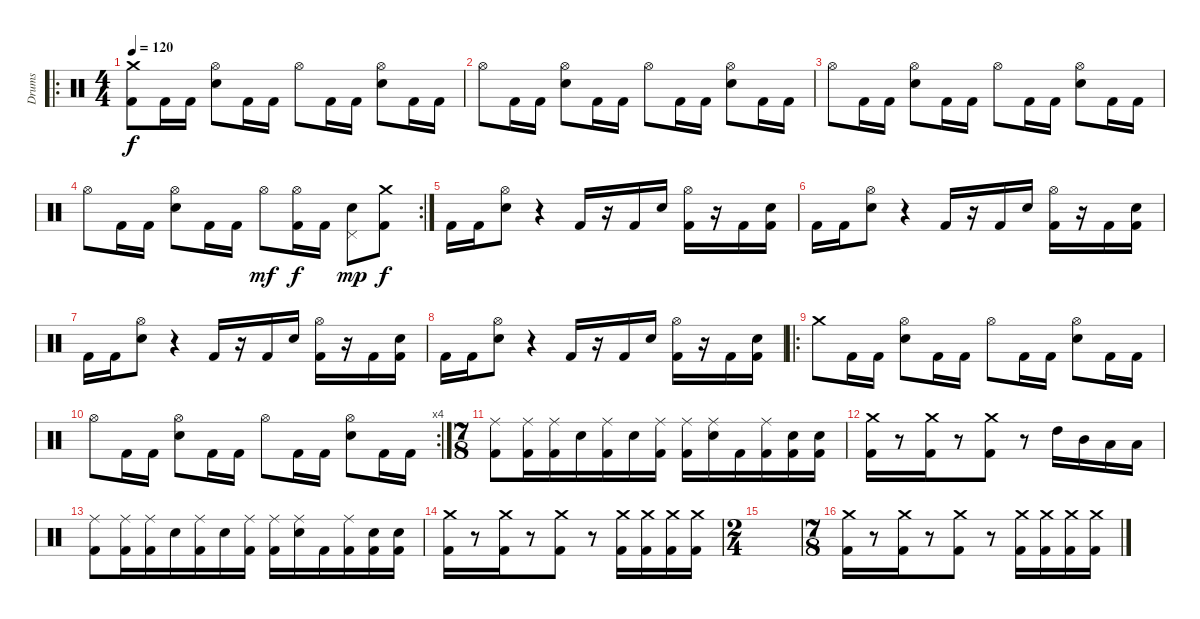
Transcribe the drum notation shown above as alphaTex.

\track ("Drums" "Drums") {instrument percussion}
\staff {score}
\articulation defaults
\ro
\ts (4 4)
\tempo 120
\clef neutral
\ks c
("Crash medium (hit)" "Kick (hit) 2").8{dy f} "Kick (hit) 2".16 "Kick (hit) 2".16 ("Hi-Hat (open)" "Snare (hit) 2").8 "Kick (hit) 2".16 "Kick (hit) 2".16 "Hi-Hat (open)".8 "Kick (hit) 2".16 "Kick (hit) 2".16 ("Hi-Hat (open)" "Snare (hit) 2").8 "Kick (hit) 2".16 "Kick (hit) 2".16 |
"Hi-Hat (open)".8 "Kick (hit) 2".16 "Kick (hit) 2".16 ("Hi-Hat (open)" "Snare (hit) 2").8 "Kick (hit) 2".16 "Kick (hit) 2".16 "Hi-Hat (open)".8 "Kick (hit) 2".16 "Kick (hit) 2".16 ("Hi-Hat (open)" "Snare (hit) 2").8 "Kick (hit) 2".16 "Kick (hit) 2".16 |
"Hi-Hat (open)".8 "Kick (hit) 2".16 "Kick (hit) 2".16 ("Hi-Hat (open)" "Snare (hit) 2").8 "Kick (hit) 2".16 "Kick (hit) 2".16 "Hi-Hat (open)".8 "Kick (hit) 2".16 "Kick (hit) 2".16 ("Hi-Hat (open)" "Snare (hit) 2").8 "Kick (hit) 2".16 "Kick (hit) 2".16 |
\rc 2 "Hi-Hat (open)".8 "Kick (hit) 2".16 "Kick (hit) 2".16
("Hi-Hat (open)" "Snare (hit) 2").8 "Kick (hit) 2".16 "Kick (hit) 2".16 "Hi-Hat (open)".8{dy mf} ("Hi-Hat (open)" "Kick (hit) 2").16{dy f} "Kick (hit) 2".16 ("Pedal Hi-Hat (hit)" "Snare (hit) 2").8{dy mp} ("Crash medium (hit)" "Kick (hit) 2").8{dy f} |
"Kick (hit) 2".16 "Kick (hit) 2".16 ("Hi-Hat (open)" "Snare (hit) 2").8 r.4 "Kick (hit) 2".16 r.16 "Kick (hit) 2".16 "Snare (hit) 2".16 ("Hi-Hat (open)" "Kick (hit) 2").16 r.16 "Kick (hit) 2".16 ("Snare (hit) 2" "Kick (hit) 2").16 |
"Kick (hit) 2".16 "Kick (hit) 2".16 ("Hi-Hat (open)" "Snare (hit) 2").8 r.4 "Kick (hit) 2".16 r.16 "Kick (hit) 2".16 "Snare (hit) 2".16 ("Hi-Hat (open)" "Kick (hit) 2").16 r.16 "Kick (hit) 2".16 ("Snare (hit) 2" "Kick (hit) 2").16 |
"Kick (hit) 2".16 "Kick (hit) 2".16 ("Hi-Hat (open)" "Snare (hit) 2").8 r.4 "Kick (hit) 2".16 r.16 "Kick (hit) 2".16 "Snare (hit) 2".16 ("Hi-Hat (open)" "Kick (hit) 2").16 r.16 "Kick (hit) 2".16 ("Snare (hit) 2" "Kick (hit) 2").16 |
"Kick (hit) 2".16 "Kick (hit) 2".16 ("Hi-Hat (open)" "Snare (hit) 2").8 r.4 "Kick (hit) 2".16 r.16 "Kick (hit) 2".16 "Snare (hit) 2".16 ("Hi-Hat (open)" "Kick (hit) 2").16 r.16 "Kick (hit) 2".16 ("Snare (hit) 2" "Kick (hit) 2").16 |
\ro "Crash medium (hit)".8 "Kick (hit) 2".16 "Kick (hit) 2".16
("Hi-Hat (open)" "Snare (hit) 2").8 "Kick (hit) 2".16 "Kick (hit) 2".16 "Hi-Hat (open)".8 "Kick (hit) 2".16 "Kick (hit) 2".16 ("Hi-Hat (open)" "Snare (hit) 2").8 "Kick (hit) 2".16 "Kick (hit) 2".16 |
\rc 4 "Hi-Hat (open)".8 "Kick (hit) 2".16 "Kick (hit) 2".16
("Hi-Hat (open)" "Snare (hit) 2").8 "Kick (hit) 2".16 "Kick (hit) 2".16 "Hi-Hat (open)".8 "Kick (hit) 2".16 "Kick (hit) 2".16 ("Hi-Hat (open)" "Snare (hit) 2").8 "Kick (hit) 2".16 "Kick (hit) 2".16 |
\ts (7 8)
("Ride (middle)" "Kick (hit) 2").8 ("Ride (middle)" "Kick (hit) 2").16 ("Ride (middle)" "Kick (hit) 2").16 "Snare (hit) 2".16 ("Ride (middle)" "Kick (hit) 2").16 "Snare (hit) 2".16 ("Ride (middle)" "Kick (hit) 2").16 ("Ride (middle)" "Kick (hit) 2").16 ("Ride (middle)" "Snare (hit) 2").16 "Kick (hit) 2".16 ("Ride (middle)" "Kick (hit) 2").16 ("Snare (hit) 2" "Kick (hit) 2").16 ("Snare (hit) 2" "Kick (hit) 2").16 |
("Crash medium (hit)" "Kick (hit) 2").16 r.8 ("Crash medium (hit)" "Kick (hit) 2").16 r.8 ("Crash medium (hit)" "Kick (hit) 2").8 r.8 "High Tom (hit)".16 "Mid Tom (hit)".16 "Low Tom (hit)".16 "Low Floor Tom (hit)".16 |
("Ride (middle)" "Kick (hit) 2").8 ("Ride (middle)" "Kick (hit) 2").16 ("Ride (middle)" "Kick (hit) 2").16 "Snare (hit) 2".16 ("Ride (middle)" "Kick (hit) 2").16 "Snare (hit) 2".16 ("Ride (middle)" "Kick (hit) 2").16 ("Ride (middle)" "Kick (hit) 2").16 ("Ride (middle)" "Snare (hit) 2").16 "Kick (hit) 2".16 ("Ride (middle)" "Kick (hit) 2").16 ("Snare (hit) 2" "Kick (hit) 2").16 ("Snare (hit) 2" "Kick (hit) 2").16 |
("Crash medium (hit)" "Kick (hit) 2").16 r.8 ("Crash medium (hit)" "Kick (hit) 2").16 r.8 ("Crash medium (hit)" "Kick (hit) 2").8 r.8 ("Crash medium (hit)" "Kick (hit) 2").16 ("Crash medium (hit)" "Kick (hit) 2").16 ("Crash medium (hit)" "Kick (hit) 2").16 ("Crash medium (hit)" "Kick (hit) 2").16 |
\ts (2 4)
|
\ts (7 8)
("Crash medium (hit)" "Kick (hit) 2").16 r.8 ("Crash medium (hit)" "Kick (hit) 2").16 r.8 ("Crash medium (hit)" "Kick (hit) 2").8 r.8 ("Crash medium (hit)" "Kick (hit) 2").16 ("Crash medium (hit)" "Kick (hit) 2").16 ("Crash medium (hit)" "Kick (hit) 2").16 ("Crash medium (hit)" "Kick (hit) 2").16
